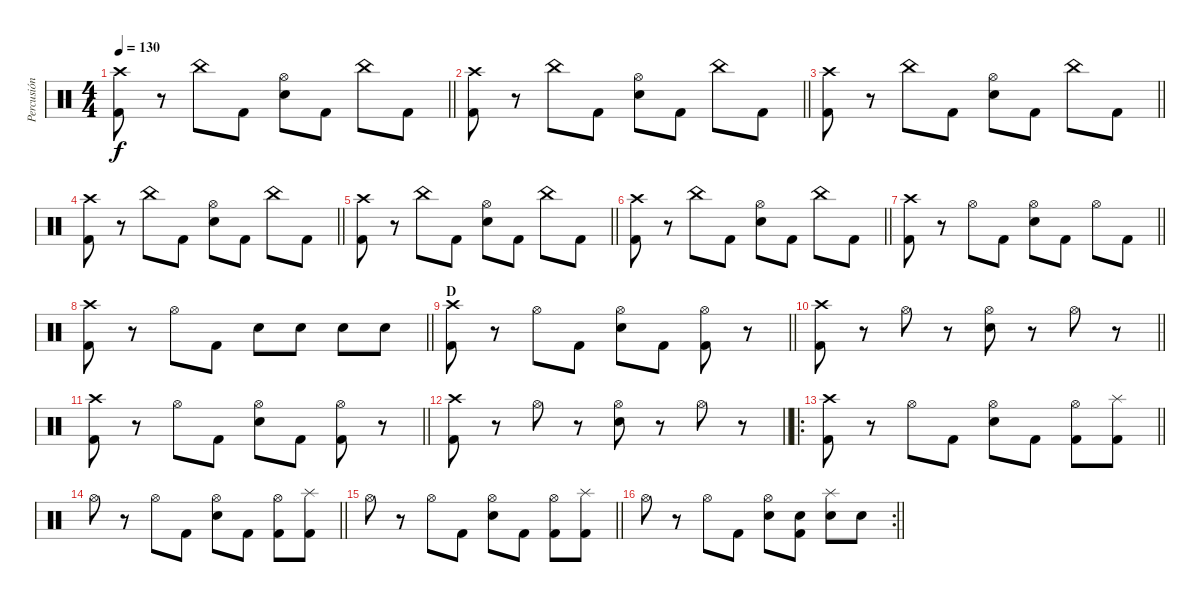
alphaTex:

\track ("Percusión" "Percusión") {mute instrument percussion}
\staff {score}
\articulation defaults
\ts (4 4)
\tempo 130
\clef neutral
\barLineRight lightlight
\ks c
("Kick (hit) 2" "Crash high (hit)").8{dy f} r.8 "China (hit)".8 "Kick (hit) 2".8 ("Electric Snare (hit)" "Hi-Hat (open)").8 "Kick (hit) 2".8 "China (hit)".8 "Kick (hit) 2".8 |
\barLineRight lightlight
("Kick (hit) 2" "Crash high (hit)").8 r.8 "China (hit)".8 "Kick (hit) 2".8 ("Electric Snare (hit)" "Hi-Hat (open)").8 "Kick (hit) 2".8 "China (hit)".8 "Kick (hit) 2".8 |
\barLineRight lightlight
("Kick (hit) 2" "Crash high (hit)").8 r.8 "China (hit)".8 "Kick (hit) 2".8 ("Electric Snare (hit)" "Hi-Hat (open)").8 "Kick (hit) 2".8 "China (hit)".8 "Kick (hit) 2".8 |
\barLineRight lightlight
("Kick (hit) 2" "Crash high (hit)").8 r.8 "China (hit)".8 "Kick (hit) 2".8 ("Electric Snare (hit)" "Hi-Hat (open)").8 "Kick (hit) 2".8 "China (hit)".8 "Kick (hit) 2".8 |
\barLineRight lightlight
("Kick (hit) 2" "Crash high (hit)").8 r.8 "China (hit)".8 "Kick (hit) 2".8 ("Electric Snare (hit)" "Hi-Hat (open)").8 "Kick (hit) 2".8 "China (hit)".8 "Kick (hit) 2".8 |
\barLineRight lightlight
("Kick (hit) 2" "Crash high (hit)").8 r.8 "China (hit)".8 "Kick (hit) 2".8 ("Electric Snare (hit)" "Hi-Hat (open)").8 "Kick (hit) 2".8 "China (hit)".8 "Kick (hit) 2".8 |
\barLineRight lightlight
("Kick (hit) 2" "Crash high (hit)").8 r.8 "Hi-Hat (open)".8 "Kick (hit) 2".8 ("Electric Snare (hit)" "Hi-Hat (open)").8 "Kick (hit) 2".8 "Hi-Hat (open)".8 "Kick (hit) 2".8 |
\barLineRight lightlight
("Kick (hit) 2" "Crash high (hit)").8 r.8 "Hi-Hat (open)".8 "Kick (hit) 2".8 "Electric Snare (hit)".8 "Electric Snare (hit)".8 "Electric Snare (hit)".8 "Electric Snare (hit)".8 |
\section ("" "D")
\barLineRight lightlight
("Kick (hit) 2" "Crash high (hit)").8 r.8 "Hi-Hat (open)".8 "Kick (hit) 2".8 ("Electric Snare (hit)" "Hi-Hat (open)").8 "Kick (hit) 2".8 ("Hi-Hat (open)" "Kick (hit) 2").8 r.8 |
\barLineRight lightlight
("Kick (hit) 2" "Crash high (hit)").8 r.8 "Hi-Hat (open)".8 r.8 ("Electric Snare (hit)" "Hi-Hat (open)").8 r.8 "Hi-Hat (open)".8 r.8 |
\barLineRight lightlight
("Kick (hit) 2" "Crash high (hit)").8 r.8 "Hi-Hat (open)".8 "Kick (hit) 2".8 ("Electric Snare (hit)" "Hi-Hat (open)").8 "Kick (hit) 2".8 ("Hi-Hat (open)" "Kick (hit) 2").8 r.8 |
\barLineRight lightlight
("Kick (hit) 2" "Crash high (hit)").8 r.8 "Hi-Hat (open)".8 r.8 ("Electric Snare (hit)" "Hi-Hat (open)").8 r.8 "Hi-Hat (open)".8 r.8 |
\ro
\barLineRight lightlight
("Kick (hit) 2" "Crash high (hit)").8 r.8 "Hi-Hat (open)".8 "Kick (hit) 2".8 ("Electric Snare (hit)" "Hi-Hat (open)").8 "Kick (hit) 2".8 ("Hi-Hat (open)" "Kick (hit) 2").8 ("Splash (hit)" "Kick (hit) 2").8 |
\barLineRight lightlight "Hi-Hat (open)".8
r.8 "Hi-Hat (open)".8 "Kick (hit) 2".8 ("Electric Snare (hit)" "Hi-Hat (open)").8 "Kick (hit) 2".8 ("Hi-Hat (open)" "Kick (hit) 2").8 ("Splash (hit)" "Kick (hit) 2").8 |
\barLineRight lightlight "Hi-Hat (open)".8
r.8 "Hi-Hat (open)".8 "Kick (hit) 2".8 ("Electric Snare (hit)" "Hi-Hat (open)").8 "Kick (hit) 2".8 ("Hi-Hat (open)" "Kick (hit) 2").8 ("Splash (hit)" "Kick (hit) 2").8 |
\rc 2
\barLineRight lightlight "Hi-Hat (open)".8
r.8 "Hi-Hat (open)".8 "Kick (hit) 2".8 ("Electric Snare (hit)" "Hi-Hat (open)").8 ("Kick (hit) 2" "Electric Snare (hit)").8 ("Splash (hit)" "Electric Snare (hit)").8 "Electric Snare (hit)".8
